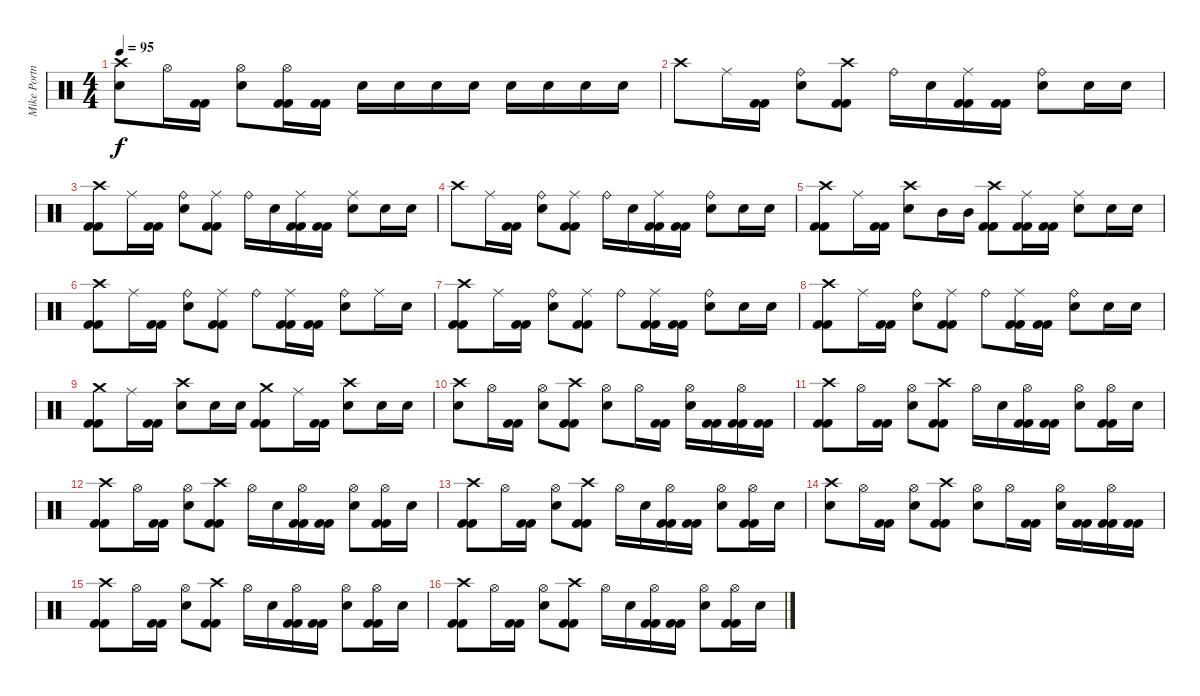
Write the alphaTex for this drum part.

\track ("Mike Portnoy" "Mike Portn") {instrument percussion}
\staff {score}
\articulation defaults
\ts (4 4)
\tempo 95
\clef neutral
\ks c
("Crash high (hit)" "Snare (hit) 2").8{dy f} "Hi-Hat (open)".16 ("Kick (hit) 2" "Kick (hit) 2").16 ("Hi-Hat (open)" "Snare (hit) 2").8 ("Hi-Hat (open)" "Kick (hit) 2" "Kick (hit) 2").16 ("Kick (hit) 2" "Kick (hit) 2").16 "Snare (hit) 2".16 "Snare (hit) 2".16 "Snare (hit) 2".16 "Snare (hit) 2".16 "Snare (hit) 2".16 "Snare (hit) 2".16 "Snare (hit) 2".16 "Snare (hit) 2".16 |
"Crash high (hit)".8 "Ride (middle)".16 ("Kick (hit) 2" "Kick (hit) 2").16 ("Ride (bell)" "Snare (hit) 2").8 ("Crash high (hit)" "Kick (hit) 2" "Kick (hit) 2").8 "Ride (bell)".16 "Snare (hit) 2".16 ("Ride (middle)" "Kick (hit) 2" "Kick (hit) 2").16 ("Kick (hit) 2" "Kick (hit) 2").16 ("Ride (bell)" "Snare (hit) 2").8 "Snare (hit) 2".16 "Snare (hit) 2".16 |
("Crash high (hit)" "Kick (hit) 2" "Kick (hit) 2").8 "Ride (middle)".16 ("Kick (hit) 2" "Kick (hit) 2").16 ("Ride (bell)" "Snare (hit) 2").8 ("Ride (middle)" "Kick (hit) 2" "Kick (hit) 2").8 "Ride (bell)".16 "Snare (hit) 2".16 ("Ride (middle)" "Kick (hit) 2" "Kick (hit) 2").16 ("Kick (hit) 2" "Kick (hit) 2").16 ("Ride (middle)" "Snare (hit) 2").8 "Snare (hit) 2".16 "Snare (hit) 2".16 |
"Crash high (hit)".8 "Ride (middle)".16 ("Kick (hit) 2" "Kick (hit) 2").16 ("Ride (bell)" "Snare (hit) 2").8 ("Ride (middle)" "Kick (hit) 2" "Kick (hit) 2").8 "Ride (bell)".16 "Snare (hit) 2".16 ("Ride (middle)" "Kick (hit) 2" "Kick (hit) 2").16 ("Kick (hit) 2" "Kick (hit) 2").16 ("Ride (bell)" "Snare (hit) 2").8 "Snare (hit) 2".16 "Snare (hit) 2".16 |
("Crash high (hit)" "Kick (hit) 2" "Kick (hit) 2").8 "Ride (middle)".16 ("Kick (hit) 2" "Kick (hit) 2").16 ("Crash high (hit)" "Snare (hit) 2").8 "Mid Tom (hit)".16 "Mid Tom (hit)".16 ("Crash high (hit)" "Kick (hit) 2" "Kick (hit) 2").8 ("Ride (middle)" "Kick (hit) 2" "Kick (hit) 2").16 ("Kick (hit) 2" "Kick (hit) 2").16 ("Ride (middle)" "Snare (hit) 2").8 "Snare (hit) 2".16 "Snare (hit) 2".16 |
("Crash high (hit)" "Kick (hit) 2" "Kick (hit) 2").8 "Ride (middle)".16 ("Kick (hit) 2" "Kick (hit) 2").16 ("Ride (bell)" "Snare (hit) 2").8 ("Ride (middle)" "Kick (hit) 2" "Kick (hit) 2").8 "Ride (bell)".8 ("Ride (middle)" "Kick (hit) 2" "Kick (hit) 2").16 ("Kick (hit) 2" "Kick (hit) 2").16 ("Ride (bell)" "Snare (hit) 2").8 "Ride (middle)".16 "Snare (hit) 2".16 |
("Crash high (hit)" "Kick (hit) 2" "Kick (hit) 2").8 "Ride (middle)".16 ("Kick (hit) 2" "Kick (hit) 2").16 ("Ride (bell)" "Snare (hit) 2").8 ("Ride (middle)" "Kick (hit) 2" "Kick (hit) 2").8 "Ride (bell)".8 ("Ride (middle)" "Kick (hit) 2" "Kick (hit) 2").16 ("Kick (hit) 2" "Kick (hit) 2").16 ("Ride (bell)" "Snare (hit) 2").8 "Snare (hit) 2".16 "Snare (hit) 2".16 |
("Crash high (hit)" "Kick (hit) 2" "Kick (hit) 2").8 "Ride (middle)".16 ("Kick (hit) 2" "Kick (hit) 2").16 ("Ride (bell)" "Snare (hit) 2").8 ("Ride (middle)" "Kick (hit) 2" "Kick (hit) 2").8 "Ride (bell)".8 ("Ride (middle)" "Kick (hit) 2" "Kick (hit) 2").16 ("Kick (hit) 2" "Kick (hit) 2").16 ("Ride (bell)" "Snare (hit) 2").8 "Snare (hit) 2".16 "Snare (hit) 2".16 |
("Crash medium (hit)" "Kick (hit) 2" "Kick (hit) 2").8 "Ride (middle)".16 ("Kick (hit) 2" "Kick (hit) 2").16 ("Crash high (hit)" "Snare (hit) 2").8 "Snare (hit) 2".16 "Snare (hit) 2".16 ("Crash medium (hit)" "Kick (hit) 2" "Kick (hit) 2").8 "Ride (middle)".16 ("Kick (hit) 2" "Kick (hit) 2").16 ("Crash high (hit)" "Snare (hit) 2").8 "Snare (hit) 2".16 "Snare (hit) 2".16 |
("Crash high (hit)" "Snare (hit) 2").8 "Hi-Hat (open)".16 ("Kick (hit) 2" "Kick (hit) 2").16 ("Hi-Hat (open)" "Snare (hit) 2").8 ("Crash high (hit)" "Kick (hit) 2" "Kick (hit) 2").8 ("Hi-Hat (open)" "Snare (hit) 2").8 "Hi-Hat (open)".16 ("Kick (hit) 2" "Kick (hit) 2").16 ("Hi-Hat (open)" "Snare (hit) 2").16 ("Kick (hit) 2" "Kick (hit) 2").16 ("Hi-Hat (open)" "Kick (hit) 2" "Kick (hit) 2").16 ("Kick (hit) 2" "Kick (hit) 2").16 |
("Crash high (hit)" "Kick (hit) 2" "Kick (hit) 2").8 "Hi-Hat (open)".16 ("Kick (hit) 2" "Kick (hit) 2").16 ("Hi-Hat (open)" "Snare (hit) 2").8 ("Crash high (hit)" "Kick (hit) 2" "Kick (hit) 2").8 "Hi-Hat (open)".16 "Snare (hit) 2".16 ("Hi-Hat (open)" "Kick (hit) 2" "Kick (hit) 2").16 ("Kick (hit) 2" "Kick (hit) 2").16 ("Hi-Hat (open)" "Snare (hit) 2").8 ("Hi-Hat (open)" "Kick (hit) 2" "Kick (hit) 2").16 "Snare (hit) 2".16 |
("Crash high (hit)" "Kick (hit) 2" "Kick (hit) 2").8 "Hi-Hat (open)".16 ("Kick (hit) 2" "Kick (hit) 2").16 ("Hi-Hat (open)" "Snare (hit) 2").8 ("Crash high (hit)" "Kick (hit) 2" "Kick (hit) 2").8 "Hi-Hat (open)".16 "Snare (hit) 2".16 ("Hi-Hat (open)" "Kick (hit) 2" "Kick (hit) 2").16 ("Kick (hit) 2" "Kick (hit) 2").16 ("Hi-Hat (open)" "Snare (hit) 2").8 ("Hi-Hat (open)" "Kick (hit) 2" "Kick (hit) 2").16 "Snare (hit) 2".16 |
("Crash high (hit)" "Kick (hit) 2" "Kick (hit) 2").8 "Hi-Hat (open)".16 ("Kick (hit) 2" "Kick (hit) 2").16 ("Hi-Hat (open)" "Snare (hit) 2").8 ("Crash high (hit)" "Kick (hit) 2" "Kick (hit) 2").8 "Hi-Hat (open)".16 "Snare (hit) 2".16 ("Hi-Hat (open)" "Kick (hit) 2" "Kick (hit) 2").16 ("Kick (hit) 2" "Kick (hit) 2").16 ("Hi-Hat (open)" "Snare (hit) 2").8 ("Hi-Hat (open)" "Kick (hit) 2" "Kick (hit) 2").16 "Snare (hit) 2".16 |
("Crash high (hit)" "Snare (hit) 2").8 "Hi-Hat (open)".16 ("Kick (hit) 2" "Kick (hit) 2").16 ("Hi-Hat (open)" "Snare (hit) 2").8 ("Crash high (hit)" "Kick (hit) 2" "Kick (hit) 2").8 ("Hi-Hat (open)" "Snare (hit) 2").8 "Hi-Hat (open)".16 ("Kick (hit) 2" "Kick (hit) 2").16 ("Hi-Hat (open)" "Snare (hit) 2").16 ("Kick (hit) 2" "Kick (hit) 2").16 ("Hi-Hat (open)" "Kick (hit) 2" "Kick (hit) 2").16 ("Kick (hit) 2" "Kick (hit) 2").16 |
("Crash high (hit)" "Kick (hit) 2" "Kick (hit) 2").8 "Hi-Hat (open)".16 ("Kick (hit) 2" "Kick (hit) 2").16 ("Hi-Hat (open)" "Snare (hit) 2").8 ("Crash high (hit)" "Kick (hit) 2" "Kick (hit) 2").8 "Hi-Hat (open)".16 "Snare (hit) 2".16 ("Hi-Hat (open)" "Kick (hit) 2" "Kick (hit) 2").16 ("Kick (hit) 2" "Kick (hit) 2").16 ("Hi-Hat (open)" "Snare (hit) 2").8 ("Hi-Hat (open)" "Kick (hit) 2" "Kick (hit) 2").16 "Snare (hit) 2".16 |
("Crash high (hit)" "Kick (hit) 2" "Kick (hit) 2").8 "Hi-Hat (open)".16 ("Kick (hit) 2" "Kick (hit) 2").16 ("Hi-Hat (open)" "Snare (hit) 2").8 ("Crash high (hit)" "Kick (hit) 2" "Kick (hit) 2").8 "Hi-Hat (open)".16 "Snare (hit) 2".16 ("Hi-Hat (open)" "Kick (hit) 2" "Kick (hit) 2").16 ("Kick (hit) 2" "Kick (hit) 2").16 ("Hi-Hat (open)" "Snare (hit) 2").8 ("Hi-Hat (open)" "Kick (hit) 2" "Kick (hit) 2").16 "Snare (hit) 2".16
